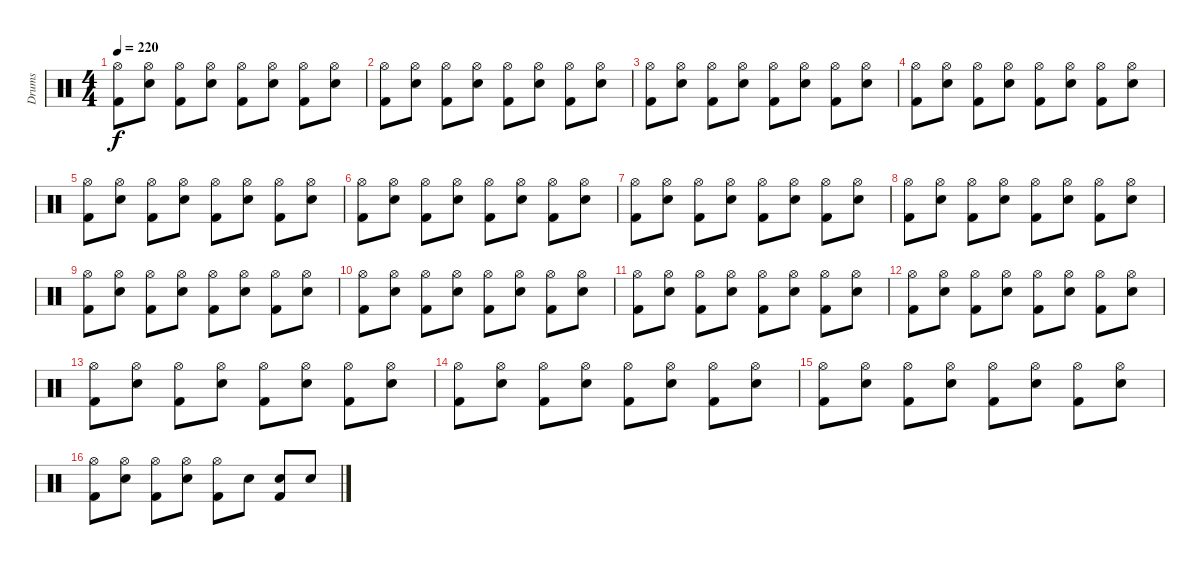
\track ("Drums" "Drums") {instrument percussion}
\staff {score}
\articulation defaults
\ts (4 4)
\tempo 220
\clef neutral
\ks c
("Hi-Hat (open)" "Kick (hit) 2").8{dy f} ("Hi-Hat (open)" "Snare (hit) 2").8 ("Hi-Hat (open)" "Kick (hit) 2").8 ("Hi-Hat (open)" "Snare (hit) 2").8 ("Hi-Hat (open)" "Kick (hit) 2").8 ("Hi-Hat (open)" "Snare (hit) 2").8 ("Hi-Hat (open)" "Kick (hit) 2").8 ("Hi-Hat (open)" "Snare (hit) 2").8 |
("Hi-Hat (open)" "Kick (hit) 2").8 ("Hi-Hat (open)" "Snare (hit) 2").8 ("Hi-Hat (open)" "Kick (hit) 2").8 ("Hi-Hat (open)" "Snare (hit) 2").8 ("Hi-Hat (open)" "Kick (hit) 2").8 ("Hi-Hat (open)" "Snare (hit) 2").8 ("Hi-Hat (open)" "Kick (hit) 2").8 ("Hi-Hat (open)" "Snare (hit) 2").8 |
("Hi-Hat (open)" "Kick (hit) 2").8 ("Hi-Hat (open)" "Snare (hit) 2").8 ("Hi-Hat (open)" "Kick (hit) 2").8 ("Hi-Hat (open)" "Snare (hit) 2").8 ("Hi-Hat (open)" "Kick (hit) 2").8 ("Hi-Hat (open)" "Snare (hit) 2").8 ("Hi-Hat (open)" "Kick (hit) 2").8 ("Hi-Hat (open)" "Snare (hit) 2").8 |
("Hi-Hat (open)" "Kick (hit) 2").8 ("Hi-Hat (open)" "Snare (hit) 2").8 ("Hi-Hat (open)" "Kick (hit) 2").8 ("Hi-Hat (open)" "Snare (hit) 2").8 ("Hi-Hat (open)" "Kick (hit) 2").8 ("Hi-Hat (open)" "Snare (hit) 2").8 ("Hi-Hat (open)" "Kick (hit) 2").8 ("Hi-Hat (open)" "Snare (hit) 2").8 |
("Hi-Hat (open)" "Kick (hit) 2").8 ("Hi-Hat (open)" "Snare (hit) 2").8 ("Hi-Hat (open)" "Kick (hit) 2").8 ("Hi-Hat (open)" "Snare (hit) 2").8 ("Hi-Hat (open)" "Kick (hit) 2").8 ("Hi-Hat (open)" "Snare (hit) 2").8 ("Hi-Hat (open)" "Kick (hit) 2").8 ("Hi-Hat (open)" "Snare (hit) 2").8 |
("Hi-Hat (open)" "Kick (hit) 2").8 ("Hi-Hat (open)" "Snare (hit) 2").8 ("Hi-Hat (open)" "Kick (hit) 2").8 ("Hi-Hat (open)" "Snare (hit) 2").8 ("Hi-Hat (open)" "Kick (hit) 2").8 ("Hi-Hat (open)" "Snare (hit) 2").8 ("Hi-Hat (open)" "Kick (hit) 2").8 ("Hi-Hat (open)" "Snare (hit) 2").8 |
("Hi-Hat (open)" "Kick (hit) 2").8 ("Hi-Hat (open)" "Snare (hit) 2").8 ("Hi-Hat (open)" "Kick (hit) 2").8 ("Hi-Hat (open)" "Snare (hit) 2").8 ("Hi-Hat (open)" "Kick (hit) 2").8 ("Hi-Hat (open)" "Snare (hit) 2").8 ("Hi-Hat (open)" "Kick (hit) 2").8 ("Hi-Hat (open)" "Snare (hit) 2").8 |
("Hi-Hat (open)" "Kick (hit) 2").8 ("Hi-Hat (open)" "Snare (hit) 2").8 ("Hi-Hat (open)" "Kick (hit) 2").8 ("Hi-Hat (open)" "Snare (hit) 2").8 ("Hi-Hat (open)" "Kick (hit) 2").8 ("Hi-Hat (open)" "Snare (hit) 2").8 ("Hi-Hat (open)" "Kick (hit) 2").8 ("Hi-Hat (open)" "Snare (hit) 2").8 |
("Hi-Hat (open)" "Kick (hit) 2").8 ("Hi-Hat (open)" "Snare (hit) 2").8 ("Hi-Hat (open)" "Kick (hit) 2").8 ("Hi-Hat (open)" "Snare (hit) 2").8 ("Hi-Hat (open)" "Kick (hit) 2").8 ("Hi-Hat (open)" "Snare (hit) 2").8 ("Hi-Hat (open)" "Kick (hit) 2").8 ("Hi-Hat (open)" "Snare (hit) 2").8 |
("Hi-Hat (open)" "Kick (hit) 2").8 ("Hi-Hat (open)" "Snare (hit) 2").8 ("Hi-Hat (open)" "Kick (hit) 2").8 ("Hi-Hat (open)" "Snare (hit) 2").8 ("Hi-Hat (open)" "Kick (hit) 2").8 ("Hi-Hat (open)" "Snare (hit) 2").8 ("Hi-Hat (open)" "Kick (hit) 2").8 ("Hi-Hat (open)" "Snare (hit) 2").8 |
("Hi-Hat (open)" "Kick (hit) 2").8 ("Hi-Hat (open)" "Snare (hit) 2").8 ("Hi-Hat (open)" "Kick (hit) 2").8 ("Hi-Hat (open)" "Snare (hit) 2").8 ("Hi-Hat (open)" "Kick (hit) 2").8 ("Hi-Hat (open)" "Snare (hit) 2").8 ("Hi-Hat (open)" "Kick (hit) 2").8 ("Hi-Hat (open)" "Snare (hit) 2").8 |
("Hi-Hat (open)" "Kick (hit) 2").8 ("Hi-Hat (open)" "Snare (hit) 2").8 ("Hi-Hat (open)" "Kick (hit) 2").8 ("Hi-Hat (open)" "Snare (hit) 2").8 ("Hi-Hat (open)" "Kick (hit) 2").8 ("Hi-Hat (open)" "Snare (hit) 2").8 ("Hi-Hat (open)" "Kick (hit) 2").8 ("Hi-Hat (open)" "Snare (hit) 2").8 |
("Hi-Hat (open)" "Kick (hit) 2").8 ("Hi-Hat (open)" "Snare (hit) 2").8 ("Hi-Hat (open)" "Kick (hit) 2").8 ("Hi-Hat (open)" "Snare (hit) 2").8 ("Hi-Hat (open)" "Kick (hit) 2").8 ("Hi-Hat (open)" "Snare (hit) 2").8 ("Hi-Hat (open)" "Kick (hit) 2").8 ("Hi-Hat (open)" "Snare (hit) 2").8 |
("Hi-Hat (open)" "Kick (hit) 2").8 ("Hi-Hat (open)" "Snare (hit) 2").8 ("Hi-Hat (open)" "Kick (hit) 2").8 ("Hi-Hat (open)" "Snare (hit) 2").8 ("Hi-Hat (open)" "Kick (hit) 2").8 ("Hi-Hat (open)" "Snare (hit) 2").8 ("Hi-Hat (open)" "Kick (hit) 2").8 ("Hi-Hat (open)" "Snare (hit) 2").8 |
("Hi-Hat (open)" "Kick (hit) 2").8 ("Hi-Hat (open)" "Snare (hit) 2").8 ("Hi-Hat (open)" "Kick (hit) 2").8 ("Hi-Hat (open)" "Snare (hit) 2").8 ("Hi-Hat (open)" "Kick (hit) 2").8 ("Hi-Hat (open)" "Snare (hit) 2").8 ("Hi-Hat (open)" "Kick (hit) 2").8 ("Hi-Hat (open)" "Snare (hit) 2").8 |
("Hi-Hat (open)" "Kick (hit) 2").8 ("Hi-Hat (open)" "Snare (hit) 2").8 ("Hi-Hat (open)" "Kick (hit) 2").8 ("Hi-Hat (open)" "Snare (hit) 2").8 ("Hi-Hat (open)" "Kick (hit) 2").8 "Snare (hit) 2".8 ("Snare (hit) 2" "Kick (hit) 2").8 "Snare (hit) 2".8
